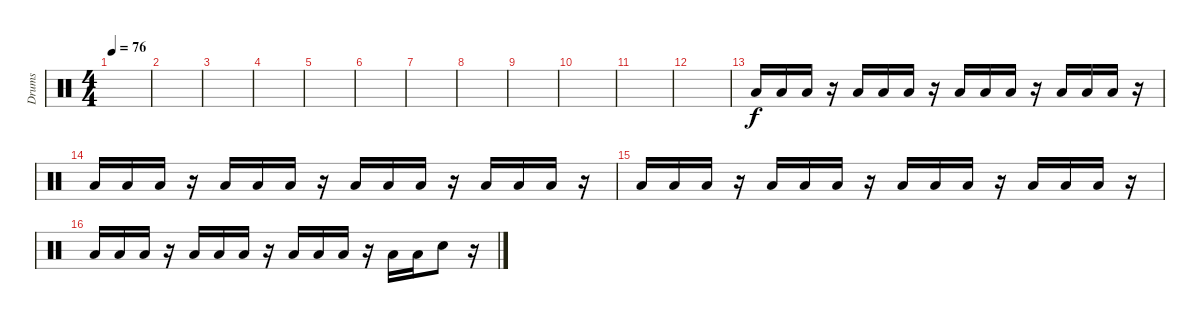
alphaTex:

\track ("Drumkit" "Drums") {instrument percussion}
\staff {score}
\articulation defaults
\ts (4 4)
\tempo 76
\clef neutral
\ks c
|
|
|
|
|
|
|
|
|
|
|
|
"Low Tom (hit)".16 "Low Tom (hit)".16 "Low Tom (hit)".16 r.16 "Low Tom (hit)".16 "Low Tom (hit)".16 "Low Tom (hit)".16 r.16 "Low Tom (hit)".16 "Low Tom (hit)".16 "Low Tom (hit)".16 r.16 "Low Tom (hit)".16 "Low Tom (hit)".16 "Low Tom (hit)".16 r.16 |
"Low Tom (hit)".16 "Low Tom (hit)".16 "Low Tom (hit)".16 r.16 "Low Tom (hit)".16 "Low Tom (hit)".16 "Low Tom (hit)".16 r.16 "Low Tom (hit)".16 "Low Tom (hit)".16 "Low Tom (hit)".16 r.16 "Low Tom (hit)".16 "Low Tom (hit)".16 "Low Tom (hit)".16 r.16 |
"Low Tom (hit)".16 "Low Tom (hit)".16 "Low Tom (hit)".16 r.16 "Low Tom (hit)".16 "Low Tom (hit)".16 "Low Tom (hit)".16 r.16 "Low Tom (hit)".16 "Low Tom (hit)".16 "Low Tom (hit)".16 r.16 "Low Tom (hit)".16 "Low Tom (hit)".16 "Low Tom (hit)".16 r.16 |
"Low Tom (hit)".16 "Low Tom (hit)".16 "Low Tom (hit)".16 r.16 "Low Tom (hit)".16 "Low Tom (hit)".16 "Low Tom (hit)".16 r.16 "Low Tom (hit)".16 "Low Tom (hit)".16 "Low Tom (hit)".16 r.16 "Low Tom (hit)".16 "Low Tom (hit)".16 "Snare (hit) 2".8 r.16
